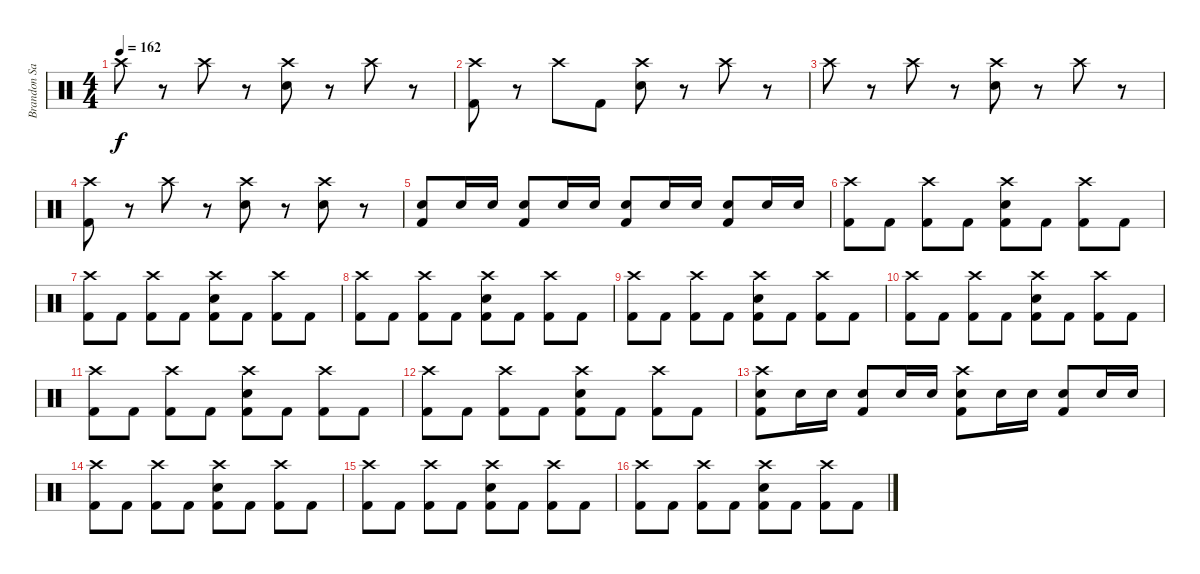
\track ("Brandon Saller" "Brandon Sa") {instrument percussion}
\staff {score}
\articulation defaults
\ts (4 4)
\tempo 162
\clef neutral
\ks c "Crash high (hit)".8{dy f}
r.8 "Crash high (hit)".8 r.8 ("Crash high (hit)" "Electric Snare (hit)").8 r.8 "Crash high (hit)".8 r.8 |
("Crash high (hit)" "Kick (hit) 2").8 r.8 "Crash high (hit)".8 "Kick (hit) 2".8 ("Crash high (hit)" "Electric Snare (hit)").8 r.8 "Crash high (hit)".8 r.8 |
"Crash high (hit)".8 r.8 "Crash high (hit)".8 r.8 ("Crash high (hit)" "Electric Snare (hit)").8 r.8 "Crash high (hit)".8 r.8 |
("Crash high (hit)" "Kick (hit) 2").8 r.8 "Crash high (hit)".8 r.8 ("Crash high (hit)" "Electric Snare (hit)").8 r.8 ("Crash high (hit)" "Electric Snare (hit)").8 r.8 |
("Electric Snare (hit)" "Kick (hit) 2").8 "Electric Snare (hit)".16 "Electric Snare (hit)".16 ("Electric Snare (hit)" "Kick (hit) 2").8 "Electric Snare (hit)".16 "Electric Snare (hit)".16 ("Electric Snare (hit)" "Kick (hit) 2").8 "Electric Snare (hit)".16 "Electric Snare (hit)".16 ("Electric Snare (hit)" "Kick (hit) 2").8 "Electric Snare (hit)".16 "Electric Snare (hit)".16 |
("Crash high (hit)" "Kick (hit) 2").8 "Kick (hit) 2".8 ("Crash high (hit)" "Kick (hit) 2").8 "Kick (hit) 2".8 ("Crash high (hit)" "Electric Snare (hit)" "Kick (hit) 2").8 "Kick (hit) 2".8 ("Crash high (hit)" "Kick (hit) 2").8 "Kick (hit) 2".8 |
("Crash high (hit)" "Kick (hit) 2").8 "Kick (hit) 2".8 ("Crash high (hit)" "Kick (hit) 2").8 "Kick (hit) 2".8 ("Crash high (hit)" "Electric Snare (hit)" "Kick (hit) 2").8 "Kick (hit) 2".8 ("Crash high (hit)" "Kick (hit) 2").8 "Kick (hit) 2".8 |
("Crash high (hit)" "Kick (hit) 2").8 "Kick (hit) 2".8 ("Crash high (hit)" "Kick (hit) 2").8 "Kick (hit) 2".8 ("Crash high (hit)" "Electric Snare (hit)" "Kick (hit) 2").8 "Kick (hit) 2".8 ("Crash high (hit)" "Kick (hit) 2").8 "Kick (hit) 2".8 |
("Crash high (hit)" "Kick (hit) 2").8 "Kick (hit) 2".8 ("Crash high (hit)" "Kick (hit) 2").8 "Kick (hit) 2".8 ("Crash high (hit)" "Electric Snare (hit)" "Kick (hit) 2").8 "Kick (hit) 2".8 ("Crash high (hit)" "Kick (hit) 2").8 "Kick (hit) 2".8 |
("Crash high (hit)" "Kick (hit) 2").8 "Kick (hit) 2".8 ("Crash high (hit)" "Kick (hit) 2").8 "Kick (hit) 2".8 ("Crash high (hit)" "Electric Snare (hit)" "Kick (hit) 2").8 "Kick (hit) 2".8 ("Crash high (hit)" "Kick (hit) 2").8 "Kick (hit) 2".8 |
("Crash high (hit)" "Kick (hit) 2").8 "Kick (hit) 2".8 ("Crash high (hit)" "Kick (hit) 2").8 "Kick (hit) 2".8 ("Crash high (hit)" "Electric Snare (hit)" "Kick (hit) 2").8 "Kick (hit) 2".8 ("Crash high (hit)" "Kick (hit) 2").8 "Kick (hit) 2".8 |
("Crash high (hit)" "Kick (hit) 2").8 "Kick (hit) 2".8 ("Crash high (hit)" "Kick (hit) 2").8 "Kick (hit) 2".8 ("Crash high (hit)" "Electric Snare (hit)" "Kick (hit) 2").8 "Kick (hit) 2".8 ("Crash high (hit)" "Kick (hit) 2").8 "Kick (hit) 2".8 |
("Crash high (hit)" "Electric Snare (hit)" "Kick (hit) 2").8 "Electric Snare (hit)".16 "Electric Snare (hit)".16 ("Electric Snare (hit)" "Kick (hit) 2").8 "Electric Snare (hit)".16 "Electric Snare (hit)".16 ("Crash high (hit)" "Electric Snare (hit)" "Kick (hit) 2").8 "Electric Snare (hit)".16 "Electric Snare (hit)".16 ("Electric Snare (hit)" "Kick (hit) 2").8 "Electric Snare (hit)".16 "Electric Snare (hit)".16 |
("Crash high (hit)" "Kick (hit) 2").8 "Kick (hit) 2".8 ("Crash high (hit)" "Kick (hit) 2").8 "Kick (hit) 2".8 ("Crash high (hit)" "Electric Snare (hit)" "Kick (hit) 2").8 "Kick (hit) 2".8 ("Crash high (hit)" "Kick (hit) 2").8 "Kick (hit) 2".8 |
("Crash high (hit)" "Kick (hit) 2").8 "Kick (hit) 2".8 ("Crash high (hit)" "Kick (hit) 2").8 "Kick (hit) 2".8 ("Crash high (hit)" "Electric Snare (hit)" "Kick (hit) 2").8 "Kick (hit) 2".8 ("Crash high (hit)" "Kick (hit) 2").8 "Kick (hit) 2".8 |
("Crash high (hit)" "Kick (hit) 2").8 "Kick (hit) 2".8 ("Crash high (hit)" "Kick (hit) 2").8 "Kick (hit) 2".8 ("Crash high (hit)" "Electric Snare (hit)" "Kick (hit) 2").8 "Kick (hit) 2".8 ("Crash high (hit)" "Kick (hit) 2").8 "Kick (hit) 2".8
